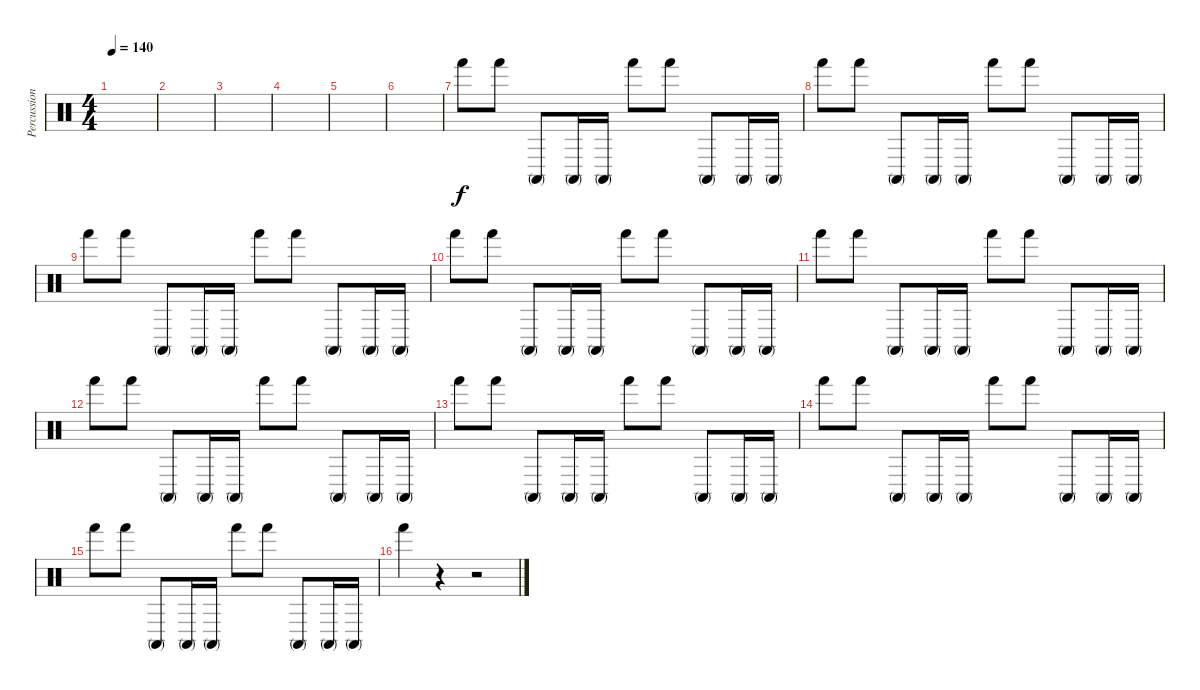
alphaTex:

\track ("Percussion" "Percussion") {instrument percussion}
\staff {score}
\articulation defaults
\ts (4 4)
\tempo 140
\clef neutral
\ks c
|
|
|
|
|
|
"Hand (hit)".8 "Hand (hit)".8 "Conga high (mute)".8 "Conga high (mute)".16 "Conga high (mute)".16 "Hand (hit)".8 "Hand (hit)".8 "Conga high (mute)".8 "Conga high (mute)".16 "Conga high (mute)".16 |
"Hand (hit)".8 "Hand (hit)".8 "Conga high (mute)".8 "Conga high (mute)".16 "Conga high (mute)".16 "Hand (hit)".8 "Hand (hit)".8 "Conga high (mute)".8 "Conga high (mute)".16 "Conga high (mute)".16 |
"Hand (hit)".8 "Hand (hit)".8 "Conga high (mute)".8 "Conga high (mute)".16 "Conga high (mute)".16 "Hand (hit)".8 "Hand (hit)".8 "Conga high (mute)".8 "Conga high (mute)".16 "Conga high (mute)".16 |
"Hand (hit)".8 "Hand (hit)".8 "Conga high (mute)".8 "Conga high (mute)".16 "Conga high (mute)".16 "Hand (hit)".8 "Hand (hit)".8 "Conga high (mute)".8 "Conga high (mute)".16 "Conga high (mute)".16 |
"Hand (hit)".8 "Hand (hit)".8 "Conga high (mute)".8 "Conga high (mute)".16 "Conga high (mute)".16 "Hand (hit)".8 "Hand (hit)".8 "Conga high (mute)".8 "Conga high (mute)".16 "Conga high (mute)".16 |
"Hand (hit)".8 "Hand (hit)".8 "Conga high (mute)".8 "Conga high (mute)".16 "Conga high (mute)".16 "Hand (hit)".8 "Hand (hit)".8 "Conga high (mute)".8 "Conga high (mute)".16 "Conga high (mute)".16 |
"Hand (hit)".8 "Hand (hit)".8 "Conga high (mute)".8 "Conga high (mute)".16 "Conga high (mute)".16 "Hand (hit)".8 "Hand (hit)".8 "Conga high (mute)".8 "Conga high (mute)".16 "Conga high (mute)".16 |
"Hand (hit)".8 "Hand (hit)".8 "Conga high (mute)".8 "Conga high (mute)".16 "Conga high (mute)".16 "Hand (hit)".8 "Hand (hit)".8 "Conga high (mute)".8 "Conga high (mute)".16 "Conga high (mute)".16 |
"Hand (hit)".8 "Hand (hit)".8 "Conga high (mute)".8 "Conga high (mute)".16 "Conga high (mute)".16 "Hand (hit)".8 "Hand (hit)".8 "Conga high (mute)".8 "Conga high (mute)".16 "Conga high (mute)".16 |
"Hand (hit)".4 r.4 r.2
